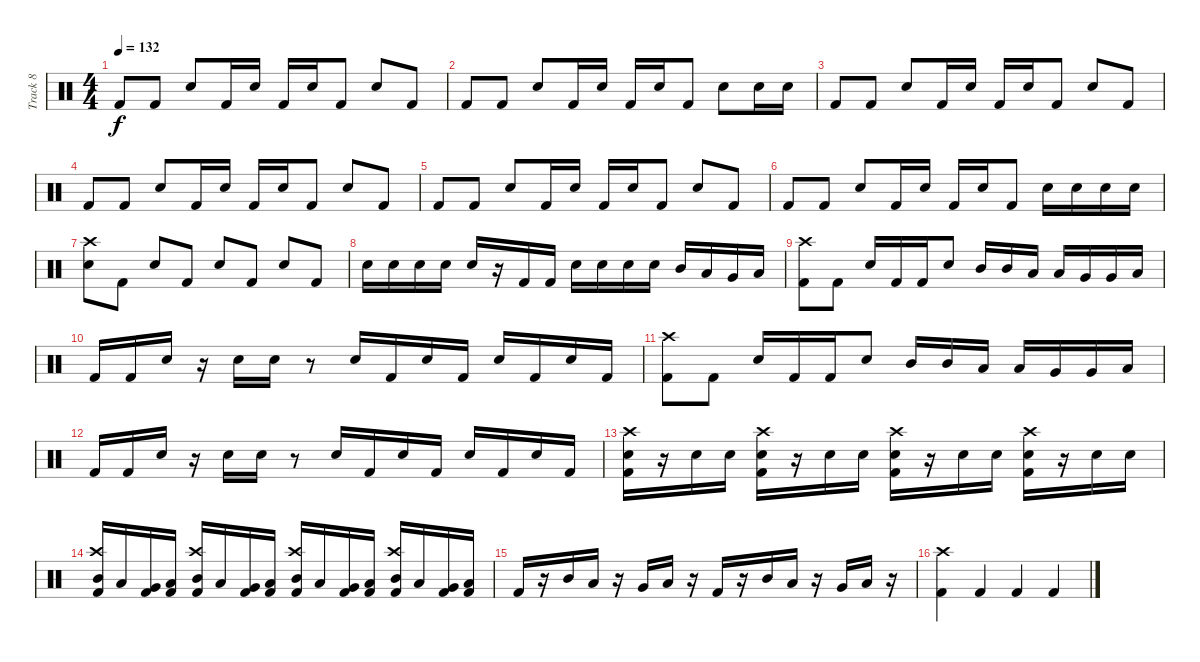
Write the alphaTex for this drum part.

\track ("Track 8" "Track 8") {instrument percussion}
\staff {score}
\articulation defaults
\ts (4 4)
\tempo 132
\clef neutral
\ks c "Kick (hit) 2".8{dy f} "Kick (hit) 2".8 "Snare (hit) 2".8 "Kick (hit) 2".16 "Snare (hit) 2".16 "Kick (hit) 2".16 "Snare (hit) 2".16 "Kick (hit) 2".8 "Snare (hit) 2".8 "Kick (hit) 2".8
|
"Kick (hit) 2".8 "Kick (hit) 2".8 "Snare (hit) 2".8 "Kick (hit) 2".16 "Snare (hit) 2".16 "Kick (hit) 2".16 "Snare (hit) 2".16 "Kick (hit) 2".8 "Snare (hit) 2".8 "Snare (hit) 2".16 "Snare (hit) 2".16 |
"Kick (hit) 2".8 "Kick (hit) 2".8 "Snare (hit) 2".8 "Kick (hit) 2".16 "Snare (hit) 2".16 "Kick (hit) 2".16 "Snare (hit) 2".16 "Kick (hit) 2".8 "Snare (hit) 2".8 "Kick (hit) 2".8 |
"Kick (hit) 2".8 "Kick (hit) 2".8 "Snare (hit) 2".8 "Kick (hit) 2".16 "Snare (hit) 2".16 "Kick (hit) 2".16 "Snare (hit) 2".16 "Kick (hit) 2".8 "Snare (hit) 2".8 "Kick (hit) 2".8 |
"Kick (hit) 2".8 "Kick (hit) 2".8 "Snare (hit) 2".8 "Kick (hit) 2".16 "Snare (hit) 2".16 "Kick (hit) 2".16 "Snare (hit) 2".16 "Kick (hit) 2".8 "Snare (hit) 2".8 "Kick (hit) 2".8 |
"Kick (hit) 2".8 "Kick (hit) 2".8 "Snare (hit) 2".8 "Kick (hit) 2".16 "Snare (hit) 2".16 "Kick (hit) 2".16 "Snare (hit) 2".16 "Kick (hit) 2".8 "Snare (hit) 2".16 "Snare (hit) 2".16 "Snare (hit) 2".16 "Snare (hit) 2".16 |
("Snare (hit) 2" "Crash high (hit)").8 "Kick (hit) 2".8 "Snare (hit) 2".8 "Kick (hit) 2".8 "Snare (hit) 2".8 "Kick (hit) 2".8 "Snare (hit) 2".8 "Kick (hit) 2".8 |
"Snare (hit) 2".16 "Snare (hit) 2".16 "Snare (hit) 2".16 "Snare (hit) 2".16 "Snare (hit) 2".16 r.16 "Kick (hit) 2".16 "Kick (hit) 2".16 "Snare (hit) 2".16 "Snare (hit) 2".16 "Snare (hit) 2".16 "Snare (hit) 2".16 "Mid Tom (hit)".16 "Low Tom (hit)".16 "Very Low Tom (hit)".16 "Low Floor Tom (hit)".16 |
("Kick (hit) 2" "Crash high (hit)").8 "Kick (hit) 2".8 "Snare (hit) 2".16 "Kick (hit) 2".16 "Kick (hit) 2".16 "Snare (hit) 2".8 "Mid Tom (hit)".16 "Mid Tom (hit)".16 "Low Tom (hit)".16 "Low Tom (hit)".16 "Very Low Tom (hit)".16 "Very Low Tom (hit)".16 "Low Floor Tom (hit)".16 |
"Kick (hit) 2".16 "Kick (hit) 2".16 "Snare (hit) 2".16 r.16 "Snare (hit) 2".16 "Snare (hit) 2".16 r.8 "Snare (hit) 2".16 "Kick (hit) 2".16 "Snare (hit) 2".16 "Kick (hit) 2".16 "Snare (hit) 2".16 "Kick (hit) 2".16 "Snare (hit) 2".16 "Kick (hit) 2".16 |
("Kick (hit) 2" "Crash high (hit)").8 "Kick (hit) 2".8 "Snare (hit) 2".16 "Kick (hit) 2".16 "Kick (hit) 2".16 "Snare (hit) 2".8 "Mid Tom (hit)".16 "Mid Tom (hit)".16 "Low Tom (hit)".16 "Low Tom (hit)".16 "Very Low Tom (hit)".16 "Very Low Tom (hit)".16 "Low Floor Tom (hit)".16 |
"Kick (hit) 2".16 "Kick (hit) 2".16 "Snare (hit) 2".16 r.16 "Snare (hit) 2".16 "Snare (hit) 2".16 r.8 "Snare (hit) 2".16 "Kick (hit) 2".16 "Snare (hit) 2".16 "Kick (hit) 2".16 "Snare (hit) 2".16 "Kick (hit) 2".16 "Snare (hit) 2".16 "Kick (hit) 2".16 |
("Kick (hit) 2" "Snare (hit) 2" "Crash high (hit)").16 r.16 "Snare (hit) 2".16 "Snare (hit) 2".16 ("Kick (hit) 2" "Snare (hit) 2" "Crash high (hit)").16 r.16 "Snare (hit) 2".16 "Snare (hit) 2".16 ("Kick (hit) 2" "Snare (hit) 2" "Crash high (hit)").16 r.16 "Snare (hit) 2".16 "Snare (hit) 2".16 ("Kick (hit) 2" "Snare (hit) 2" "Crash high (hit)").16 r.16 "Snare (hit) 2".16 "Snare (hit) 2".16 |
("Kick (hit) 2" "Mid Tom (hit)" "Crash high (hit)").16 "Low Tom (hit)".16 ("Kick (hit) 2" "Very Low Tom (hit)").16 ("Kick (hit) 2" "Low Floor Tom (hit)").16 ("Kick (hit) 2" "Mid Tom (hit)" "Crash high (hit)").16 "Low Tom (hit)".16 ("Kick (hit) 2" "Very Low Tom (hit)").16 ("Kick (hit) 2" "Low Floor Tom (hit)").16 ("Kick (hit) 2" "Mid Tom (hit)" "Crash high (hit)").16 "Low Tom (hit)".16 ("Kick (hit) 2" "Very Low Tom (hit)").16 ("Kick (hit) 2" "Low Floor Tom (hit)").16 ("Kick (hit) 2" "Mid Tom (hit)" "Crash high (hit)").16 "Low Tom (hit)".16 ("Kick (hit) 2" "Very Low Tom (hit)").16 ("Kick (hit) 2" "Low Floor Tom (hit)").16 |
"Kick (hit) 2".16 r.16 "Mid Tom (hit)".16 "Low Tom (hit)".16 r.16 "Very Low Tom (hit)".16 "Low Floor Tom (hit)".16 r.16 "Kick (hit) 2".16 r.16 "Mid Tom (hit)".16 "Low Tom (hit)".16 r.16 "Very Low Tom (hit)".16 "Low Floor Tom (hit)".16 r.16 |
("Kick (hit) 2" "Crash high (hit)").4 "Kick (hit) 2".4 "Kick (hit) 2".4 "Kick (hit) 2".4
